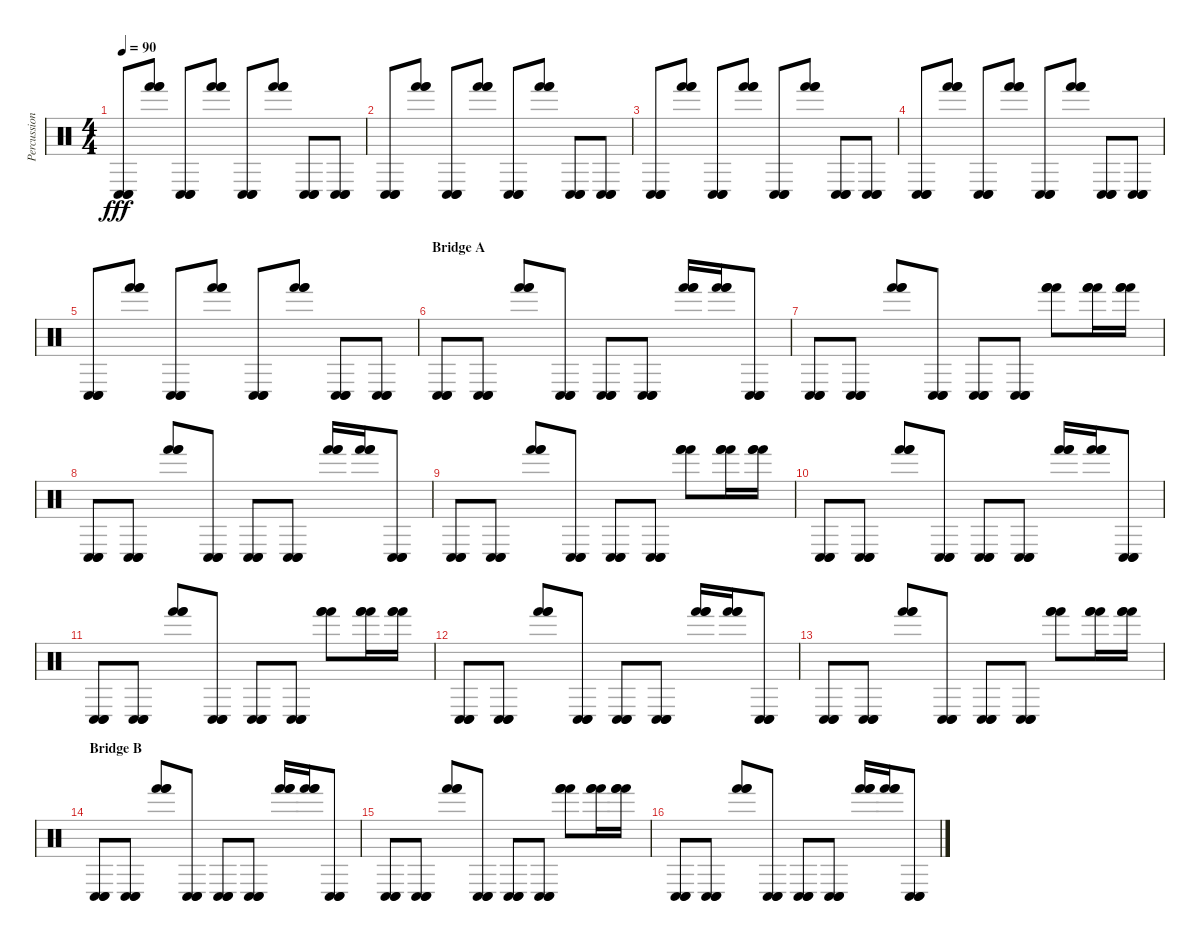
\track ("Percussion" "Percussion") {instrument percussion}
\staff {score}
\articulation defaults
\ts (4 4)
\tempo 90
\clef neutral
\ks c
("Conga low (hit)" "Conga low (hit)" "Conga low (hit)").8{dy fff} ("Hand (hit)" "Hand (hit)" "Hand (hit)").8 ("Conga low (hit)" "Conga low (hit)" "Conga low (hit)").8 ("Hand (hit)" "Hand (hit)" "Hand (hit)").8 ("Conga low (hit)" "Conga low (hit)" "Conga low (hit)").8 ("Hand (hit)" "Hand (hit)" "Hand (hit)").8 ("Conga low (hit)" "Conga low (hit)" "Conga low (hit)").8 ("Conga low (hit)" "Conga low (hit)" "Conga low (hit)").8 |
("Conga low (hit)" "Conga low (hit)" "Conga low (hit)").8 ("Hand (hit)" "Hand (hit)" "Hand (hit)").8 ("Conga low (hit)" "Conga low (hit)" "Conga low (hit)").8 ("Hand (hit)" "Hand (hit)" "Hand (hit)").8 ("Conga low (hit)" "Conga low (hit)" "Conga low (hit)").8 ("Hand (hit)" "Hand (hit)" "Hand (hit)").8 ("Conga low (hit)" "Conga low (hit)" "Conga low (hit)").8 ("Conga low (hit)" "Conga low (hit)" "Conga low (hit)").8 |
("Conga low (hit)" "Conga low (hit)" "Conga low (hit)").8 ("Hand (hit)" "Hand (hit)" "Hand (hit)").8 ("Conga low (hit)" "Conga low (hit)" "Conga low (hit)").8 ("Hand (hit)" "Hand (hit)" "Hand (hit)").8 ("Conga low (hit)" "Conga low (hit)" "Conga low (hit)").8 ("Hand (hit)" "Hand (hit)" "Hand (hit)").8 ("Conga low (hit)" "Conga low (hit)" "Conga low (hit)").8 ("Conga low (hit)" "Conga low (hit)" "Conga low (hit)").8 |
("Conga low (hit)" "Conga low (hit)" "Conga low (hit)").8 ("Hand (hit)" "Hand (hit)" "Hand (hit)").8 ("Conga low (hit)" "Conga low (hit)" "Conga low (hit)").8 ("Hand (hit)" "Hand (hit)" "Hand (hit)").8 ("Conga low (hit)" "Conga low (hit)" "Conga low (hit)").8 ("Hand (hit)" "Hand (hit)" "Hand (hit)").8 ("Conga low (hit)" "Conga low (hit)" "Conga low (hit)").8 ("Conga low (hit)" "Conga low (hit)" "Conga low (hit)").8 |
("Conga low (hit)" "Conga low (hit)" "Conga low (hit)").8 ("Hand (hit)" "Hand (hit)" "Hand (hit)").8 ("Conga low (hit)" "Conga low (hit)" "Conga low (hit)").8 ("Hand (hit)" "Hand (hit)" "Hand (hit)").8 ("Conga low (hit)" "Conga low (hit)" "Conga low (hit)").8 ("Hand (hit)" "Hand (hit)" "Hand (hit)").8 ("Conga low (hit)" "Conga low (hit)" "Conga low (hit)").8 ("Conga low (hit)" "Conga low (hit)" "Conga low (hit)").8 |
\section ("" "Bridge A")
("Conga low (hit)" "Conga low (hit)" "Conga low (hit)").8 ("Conga low (hit)" "Conga low (hit)" "Conga low (hit)").8 ("Hand (hit)" "Hand (hit)" "Hand (hit)").8 ("Conga low (hit)" "Conga low (hit)" "Conga low (hit)").8 ("Conga low (hit)" "Conga low (hit)" "Conga low (hit)").8 ("Conga low (hit)" "Conga low (hit)" "Conga low (hit)").8 ("Hand (hit)" "Hand (hit)" "Hand (hit)").16 ("Hand (hit)" "Hand (hit)" "Hand (hit)").16 ("Conga low (hit)" "Conga low (hit)" "Conga low (hit)").8 |
("Conga low (hit)" "Conga low (hit)" "Conga low (hit)").8 ("Conga low (hit)" "Conga low (hit)" "Conga low (hit)").8 ("Hand (hit)" "Hand (hit)" "Hand (hit)").8 ("Conga low (hit)" "Conga low (hit)" "Conga low (hit)").8 ("Conga low (hit)" "Conga low (hit)" "Conga low (hit)").8 ("Conga low (hit)" "Conga low (hit)" "Conga low (hit)").8 ("Hand (hit)" "Hand (hit)" "Hand (hit)").8 ("Hand (hit)" "Hand (hit)" "Hand (hit)").16 ("Hand (hit)" "Hand (hit)" "Hand (hit)").16 |
("Conga low (hit)" "Conga low (hit)" "Conga low (hit)").8 ("Conga low (hit)" "Conga low (hit)" "Conga low (hit)").8 ("Hand (hit)" "Hand (hit)" "Hand (hit)").8 ("Conga low (hit)" "Conga low (hit)" "Conga low (hit)").8 ("Conga low (hit)" "Conga low (hit)" "Conga low (hit)").8 ("Conga low (hit)" "Conga low (hit)" "Conga low (hit)").8 ("Hand (hit)" "Hand (hit)" "Hand (hit)").16 ("Hand (hit)" "Hand (hit)" "Hand (hit)").16 ("Conga low (hit)" "Conga low (hit)" "Conga low (hit)").8 |
("Conga low (hit)" "Conga low (hit)" "Conga low (hit)").8 ("Conga low (hit)" "Conga low (hit)" "Conga low (hit)").8 ("Hand (hit)" "Hand (hit)" "Hand (hit)").8 ("Conga low (hit)" "Conga low (hit)" "Conga low (hit)").8 ("Conga low (hit)" "Conga low (hit)" "Conga low (hit)").8 ("Conga low (hit)" "Conga low (hit)" "Conga low (hit)").8 ("Hand (hit)" "Hand (hit)" "Hand (hit)").8 ("Hand (hit)" "Hand (hit)" "Hand (hit)").16 ("Hand (hit)" "Hand (hit)" "Hand (hit)").16 |
("Conga low (hit)" "Conga low (hit)" "Conga low (hit)").8 ("Conga low (hit)" "Conga low (hit)" "Conga low (hit)").8 ("Hand (hit)" "Hand (hit)" "Hand (hit)").8 ("Conga low (hit)" "Conga low (hit)" "Conga low (hit)").8 ("Conga low (hit)" "Conga low (hit)" "Conga low (hit)").8 ("Conga low (hit)" "Conga low (hit)" "Conga low (hit)").8 ("Hand (hit)" "Hand (hit)" "Hand (hit)").16 ("Hand (hit)" "Hand (hit)" "Hand (hit)").16 ("Conga low (hit)" "Conga low (hit)" "Conga low (hit)").8 |
("Conga low (hit)" "Conga low (hit)" "Conga low (hit)").8 ("Conga low (hit)" "Conga low (hit)" "Conga low (hit)").8 ("Hand (hit)" "Hand (hit)" "Hand (hit)").8 ("Conga low (hit)" "Conga low (hit)" "Conga low (hit)").8 ("Conga low (hit)" "Conga low (hit)" "Conga low (hit)").8 ("Conga low (hit)" "Conga low (hit)" "Conga low (hit)").8 ("Hand (hit)" "Hand (hit)" "Hand (hit)").8 ("Hand (hit)" "Hand (hit)" "Hand (hit)").16 ("Hand (hit)" "Hand (hit)" "Hand (hit)").16 |
("Conga low (hit)" "Conga low (hit)" "Conga low (hit)").8 ("Conga low (hit)" "Conga low (hit)" "Conga low (hit)").8 ("Hand (hit)" "Hand (hit)" "Hand (hit)").8 ("Conga low (hit)" "Conga low (hit)" "Conga low (hit)").8 ("Conga low (hit)" "Conga low (hit)" "Conga low (hit)").8 ("Conga low (hit)" "Conga low (hit)" "Conga low (hit)").8 ("Hand (hit)" "Hand (hit)" "Hand (hit)").16 ("Hand (hit)" "Hand (hit)" "Hand (hit)").16 ("Conga low (hit)" "Conga low (hit)" "Conga low (hit)").8 |
("Conga low (hit)" "Conga low (hit)" "Conga low (hit)").8 ("Conga low (hit)" "Conga low (hit)" "Conga low (hit)").8 ("Hand (hit)" "Hand (hit)" "Hand (hit)").8 ("Conga low (hit)" "Conga low (hit)" "Conga low (hit)").8 ("Conga low (hit)" "Conga low (hit)" "Conga low (hit)").8 ("Conga low (hit)" "Conga low (hit)" "Conga low (hit)").8 ("Hand (hit)" "Hand (hit)" "Hand (hit)").8 ("Hand (hit)" "Hand (hit)" "Hand (hit)").16 ("Hand (hit)" "Hand (hit)" "Hand (hit)").16 |
\section ("" "Bridge B")
("Conga low (hit)" "Conga low (hit)" "Conga low (hit)").8 ("Conga low (hit)" "Conga low (hit)" "Conga low (hit)").8 ("Hand (hit)" "Hand (hit)" "Hand (hit)").8 ("Conga low (hit)" "Conga low (hit)" "Conga low (hit)").8 ("Conga low (hit)" "Conga low (hit)" "Conga low (hit)").8 ("Conga low (hit)" "Conga low (hit)" "Conga low (hit)").8 ("Hand (hit)" "Hand (hit)" "Hand (hit)").16 ("Hand (hit)" "Hand (hit)" "Hand (hit)").16 ("Conga low (hit)" "Conga low (hit)" "Conga low (hit)").8 |
("Conga low (hit)" "Conga low (hit)" "Conga low (hit)").8 ("Conga low (hit)" "Conga low (hit)" "Conga low (hit)").8 ("Hand (hit)" "Hand (hit)" "Hand (hit)").8 ("Conga low (hit)" "Conga low (hit)" "Conga low (hit)").8 ("Conga low (hit)" "Conga low (hit)" "Conga low (hit)").8 ("Conga low (hit)" "Conga low (hit)" "Conga low (hit)").8 ("Hand (hit)" "Hand (hit)" "Hand (hit)").8 ("Hand (hit)" "Hand (hit)" "Hand (hit)").16 ("Hand (hit)" "Hand (hit)" "Hand (hit)").16 |
("Conga low (hit)" "Conga low (hit)" "Conga low (hit)").8 ("Conga low (hit)" "Conga low (hit)" "Conga low (hit)").8 ("Hand (hit)" "Hand (hit)" "Hand (hit)").8 ("Conga low (hit)" "Conga low (hit)" "Conga low (hit)").8 ("Conga low (hit)" "Conga low (hit)" "Conga low (hit)").8 ("Conga low (hit)" "Conga low (hit)" "Conga low (hit)").8 ("Hand (hit)" "Hand (hit)" "Hand (hit)").16 ("Hand (hit)" "Hand (hit)" "Hand (hit)").16 ("Conga low (hit)" "Conga low (hit)" "Conga low (hit)").8
